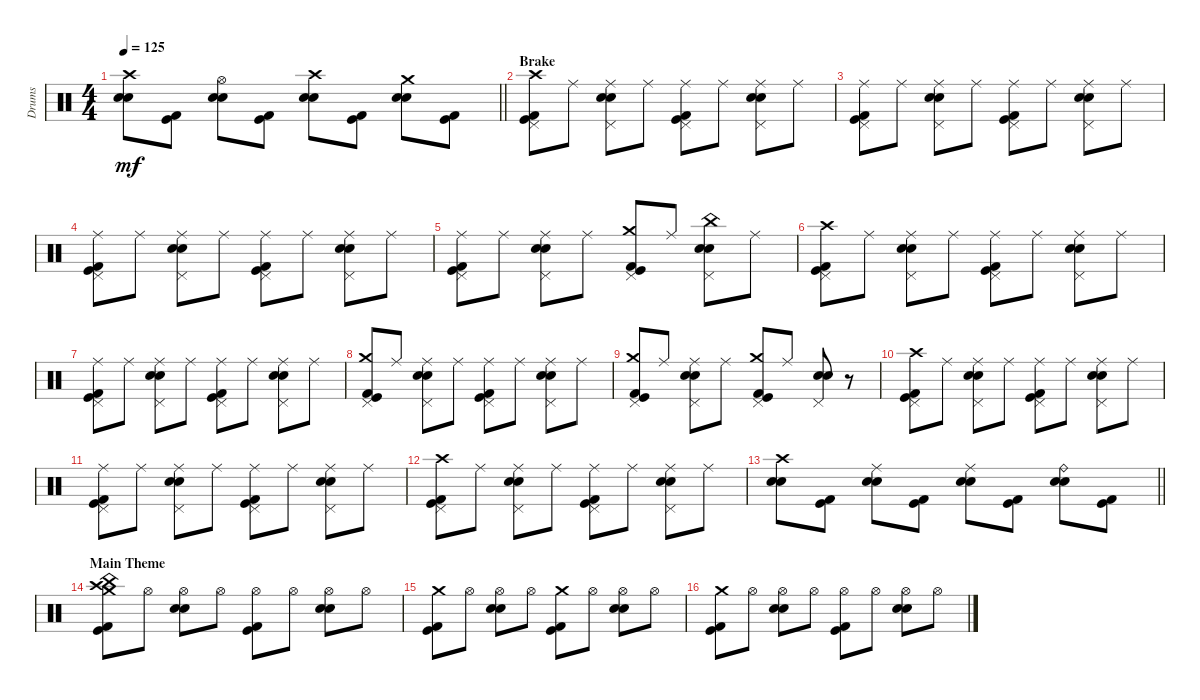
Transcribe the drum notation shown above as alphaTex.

\track ("Drums" "Drums") {instrument percussion}
\staff {score}
\articulation defaults
\ts (4 4)
\tempo 125
\clef neutral
\barLineRight lightlight
\ks c
("Crash high (hit)" "Snare (hit) 2" "Electric Snare (hit)").8{dy mf} ("Kick (hit) 2" "Kick (hit)").8 ("Hi-Hat (open)" "Snare (hit) 2" "Electric Snare (hit)").8 ("Kick (hit) 2" "Kick (hit)").8 ("Crash high (hit)" "Snare (hit) 2" "Electric Snare (hit)").8 ("Kick (hit) 2" "Kick (hit)").8 ("Crash medium (hit)" "Snare (hit) 2" "Electric Snare (hit)").8 ("Kick (hit) 2" "Kick (hit)").8 |
\section ("" "Brake")
("Crash high (hit)" "Pedal Hi-Hat (hit)" "Kick (hit) 2" "Kick (hit)").8 "Ride (middle)".8 ("Ride (middle)" "Pedal Hi-Hat (hit)" "Snare (hit) 2" "Electric Snare (hit)").8 "Ride (middle)".8 ("Ride (middle)" "Pedal Hi-Hat (hit)" "Kick (hit) 2" "Kick (hit)").8 "Ride (middle)".8 ("Ride (middle)" "Pedal Hi-Hat (hit)" "Snare (hit) 2" "Electric Snare (hit)").8 "Ride (middle)".8 |
("Ride (middle)" "Pedal Hi-Hat (hit)" "Kick (hit) 2" "Kick (hit)").8 "Ride (middle)".8 ("Ride (middle)" "Pedal Hi-Hat (hit)" "Snare (hit) 2" "Electric Snare (hit)").8 "Ride (middle)".8 ("Ride (middle)" "Pedal Hi-Hat (hit)" "Kick (hit) 2" "Kick (hit)").8 "Ride (middle)".8 ("Ride (middle)" "Pedal Hi-Hat (hit)" "Snare (hit) 2" "Electric Snare (hit)").8 "Ride (middle)".8 |
("Ride (middle)" "Pedal Hi-Hat (hit)" "Kick (hit) 2" "Kick (hit)").8 "Ride (middle)".8 ("Ride (middle)" "Pedal Hi-Hat (hit)" "Snare (hit) 2" "Electric Snare (hit)").8 "Ride (middle)".8 ("Ride (middle)" "Pedal Hi-Hat (hit)" "Kick (hit) 2" "Kick (hit)").8 "Ride (middle)".8 ("Ride (middle)" "Pedal Hi-Hat (hit)" "Snare (hit) 2" "Electric Snare (hit)").8 "Ride (middle)".8 |
("Ride (middle)" "Pedal Hi-Hat (hit)" "Kick (hit) 2" "Kick (hit)").8 "Ride (middle)".8 ("Ride (middle)" "Pedal Hi-Hat (hit)" "Snare (hit) 2" "Electric Snare (hit)").8 "Ride (middle)".8 ("Crash medium (hit)" "Pedal Hi-Hat (hit)" "Kick (hit) 2" "Kick (hit)").8 "Ride (middle)".8 ("China (hit)" "Pedal Hi-Hat (hit)" "Snare (hit) 2" "Electric Snare (hit)").8 "Ride (middle)".8 |
("Crash high (hit)" "Pedal Hi-Hat (hit)" "Kick (hit) 2" "Kick (hit)").8 "Ride (middle)".8 ("Ride (middle)" "Pedal Hi-Hat (hit)" "Snare (hit) 2" "Electric Snare (hit)").8 "Ride (middle)".8 ("Ride (middle)" "Pedal Hi-Hat (hit)" "Kick (hit) 2" "Kick (hit)").8 "Ride (middle)".8 ("Ride (middle)" "Pedal Hi-Hat (hit)" "Snare (hit) 2" "Electric Snare (hit)").8 "Ride (middle)".8 |
("Ride (middle)" "Pedal Hi-Hat (hit)" "Kick (hit) 2" "Kick (hit)").8 "Ride (middle)".8 ("Ride (middle)" "Pedal Hi-Hat (hit)" "Snare (hit) 2" "Electric Snare (hit)").8 "Ride (middle)".8 ("Ride (middle)" "Pedal Hi-Hat (hit)" "Kick (hit) 2" "Kick (hit)").8 "Ride (middle)".8 ("Ride (middle)" "Pedal Hi-Hat (hit)" "Snare (hit) 2" "Electric Snare (hit)").8 "Ride (middle)".8 |
("Crash medium (hit)" "Pedal Hi-Hat (hit)" "Kick (hit) 2" "Kick (hit)").8 "Ride (middle)".8 ("Ride (middle)" "Pedal Hi-Hat (hit)" "Snare (hit) 2" "Electric Snare (hit)").8 "Ride (middle)".8 ("Ride (middle)" "Pedal Hi-Hat (hit)" "Kick (hit) 2" "Kick (hit)").8 "Ride (middle)".8 ("Ride (middle)" "Pedal Hi-Hat (hit)" "Snare (hit) 2" "Electric Snare (hit)").8 "Ride (middle)".8 |
("Crash medium (hit)" "Pedal Hi-Hat (hit)" "Kick (hit) 2" "Kick (hit)").8 "Ride (middle)".8 ("Ride (middle)" "Pedal Hi-Hat (hit)" "Snare (hit) 2" "Electric Snare (hit)").8 "Ride (middle)".8 ("Crash medium (hit)" "Pedal Hi-Hat (hit)" "Kick (hit) 2" "Kick (hit)").8 "Ride (middle)".8 ("Pedal Hi-Hat (hit)" "Snare (hit) 2" "Electric Snare (hit)").8 r.8 |
("Crash high (hit)" "Pedal Hi-Hat (hit)" "Kick (hit) 2" "Kick (hit)").8 "Ride (middle)".8 ("Ride (middle)" "Pedal Hi-Hat (hit)" "Snare (hit) 2" "Electric Snare (hit)").8 "Ride (middle)".8 ("Ride (middle)" "Pedal Hi-Hat (hit)" "Kick (hit) 2" "Kick (hit)").8 "Ride (middle)".8 ("Ride (middle)" "Pedal Hi-Hat (hit)" "Snare (hit) 2" "Electric Snare (hit)").8 "Ride (middle)".8 |
("Ride (middle)" "Pedal Hi-Hat (hit)" "Kick (hit) 2" "Kick (hit)").8 "Ride (middle)".8 ("Ride (middle)" "Pedal Hi-Hat (hit)" "Snare (hit) 2" "Electric Snare (hit)").8 "Ride (middle)".8 ("Ride (middle)" "Pedal Hi-Hat (hit)" "Kick (hit) 2" "Kick (hit)").8 "Ride (middle)".8 ("Ride (middle)" "Pedal Hi-Hat (hit)" "Snare (hit) 2" "Electric Snare (hit)").8 "Ride (middle)".8 |
("Crash high (hit)" "Pedal Hi-Hat (hit)" "Kick (hit) 2" "Kick (hit)").8 "Ride (middle)".8 ("Ride (middle)" "Pedal Hi-Hat (hit)" "Snare (hit) 2" "Electric Snare (hit)").8 "Ride (middle)".8 ("Ride (middle)" "Pedal Hi-Hat (hit)" "Kick (hit) 2" "Kick (hit)").8 "Ride (middle)".8 ("Ride (middle)" "Pedal Hi-Hat (hit)" "Snare (hit) 2" "Electric Snare (hit)").8 "Ride (middle)".8 |
\barLineRight lightlight
("Crash high (hit)" "Snare (hit) 2" "Electric Snare (hit)").8 ("Kick (hit) 2" "Kick (hit)").8 ("Ride (middle)" "Snare (hit) 2" "Electric Snare (hit)").8 ("Kick (hit) 2" "Kick (hit)").8 ("Ride (middle)" "Snare (hit) 2" "Electric Snare (hit)").8 ("Kick (hit) 2" "Kick (hit)").8 ("Ride (bell)" "Snare (hit) 2" "Electric Snare (hit)").8 ("Kick (hit) 2" "Kick (hit)").8 |
\section ("" "Main Theme")
("Crash high (hit)" "Crash medium (hit)" "China (hit)" "Kick (hit) 2" "Kick (hit)").8 "Hi-Hat (open)".8 ("Hi-Hat (open)" "Snare (hit) 2" "Electric Snare (hit)").8 "Hi-Hat (open)".8 ("Hi-Hat (open)" "Kick (hit) 2" "Kick (hit)").8 "Hi-Hat (open)".8 ("Hi-Hat (open)" "Snare (hit) 2" "Electric Snare (hit)").8 "Hi-Hat (open)".8 |
("Crash medium (hit)" "Kick (hit) 2" "Kick (hit)").8 "Hi-Hat (open)".8 ("Hi-Hat (open)" "Snare (hit) 2" "Electric Snare (hit)").8 "Hi-Hat (open)".8 ("Crash medium (hit)" "Kick (hit) 2" "Kick (hit)").8 "Hi-Hat (open)".8 ("Hi-Hat (open)" "Snare (hit) 2" "Electric Snare (hit)").8 "Hi-Hat (open)".8 |
("Crash medium (hit)" "Kick (hit) 2" "Kick (hit)").8 "Hi-Hat (open)".8 ("Hi-Hat (open)" "Snare (hit) 2" "Electric Snare (hit)").8 "Hi-Hat (open)".8 ("Hi-Hat (open)" "Kick (hit) 2" "Kick (hit)").8 "Hi-Hat (open)".8 ("Hi-Hat (open)" "Snare (hit) 2" "Electric Snare (hit)").8 "Hi-Hat (open)".8
